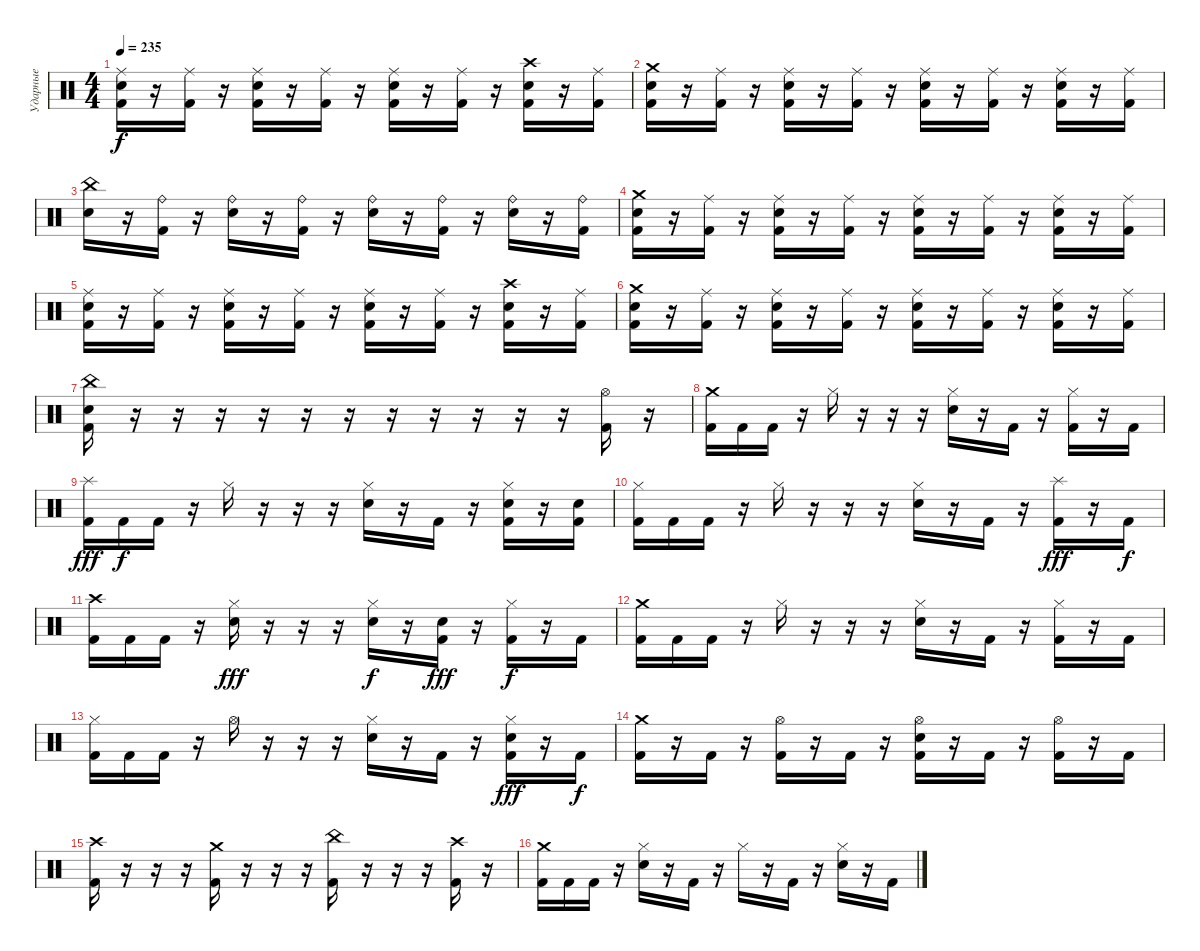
\track ("Ударные" "Ударные") {instrument percussion}
\staff {score}
\articulation defaults
\ts (4 4)
\tempo 235
\clef neutral
\ks c
("Ride (middle)" "Snare (hit) 2" "Kick (hit) 2").16{dy f} r.16 ("Ride (middle)" "Kick (hit) 2").16 r.16 ("Ride (middle)" "Snare (hit) 2" "Kick (hit) 2").16 r.16 ("Ride (middle)" "Kick (hit) 2").16 r.16 ("Ride (middle)" "Snare (hit) 2" "Kick (hit) 2").16 r.16 ("Ride (middle)" "Kick (hit) 2").16 r.16 ("Crash high (hit)" "Snare (hit) 2" "Kick (hit) 2").16 r.16 ("Ride (middle)" "Kick (hit) 2").16 |
("Crash medium (hit)" "Snare (hit) 2" "Kick (hit) 2").16 r.16 ("Ride (middle)" "Kick (hit) 2").16 r.16 ("Ride (middle)" "Snare (hit) 2" "Kick (hit) 2").16 r.16 ("Ride (middle)" "Kick (hit) 2").16 r.16 ("Ride (middle)" "Snare (hit) 2" "Kick (hit) 2").16 r.16 ("Ride (middle)" "Kick (hit) 2").16 r.16 ("Ride (middle)" "Snare (hit) 2" "Kick (hit) 2").16 r.16 ("Ride (middle)" "Kick (hit) 2").16 |
("China (hit)" "Snare (hit) 2").16 r.16 ("Ride (bell)" "Kick (hit) 2").16 r.16 ("Ride (bell)" "Snare (hit) 2").16 r.16 ("Ride (bell)" "Kick (hit) 2").16 r.16 ("Ride (bell)" "Snare (hit) 2").16 r.16 ("Ride (bell)" "Kick (hit) 2").16 r.16 ("Ride (bell)" "Snare (hit) 2").16 r.16 ("Ride (bell)" "Kick (hit) 2").16 |
("Crash medium (hit)" "Snare (hit) 2" "Kick (hit) 2").16 r.16 ("Ride (middle)" "Kick (hit) 2").16 r.16 ("Ride (middle)" "Snare (hit) 2" "Kick (hit) 2").16 r.16 ("Ride (middle)" "Kick (hit) 2").16 r.16 ("Ride (middle)" "Snare (hit) 2" "Kick (hit) 2").16 r.16 ("Ride (middle)" "Kick (hit) 2").16 r.16 ("Ride (middle)" "Snare (hit) 2" "Kick (hit) 2").16 r.16 ("Ride (middle)" "Kick (hit) 2").16 |
("Ride (middle)" "Snare (hit) 2" "Kick (hit) 2").16 r.16 ("Ride (middle)" "Kick (hit) 2").16 r.16 ("Ride (middle)" "Snare (hit) 2" "Kick (hit) 2").16 r.16 ("Ride (middle)" "Kick (hit) 2").16 r.16 ("Ride (middle)" "Snare (hit) 2" "Kick (hit) 2").16 r.16 ("Ride (middle)" "Kick (hit) 2").16 r.16 ("Crash high (hit)" "Snare (hit) 2" "Kick (hit) 2").16 r.16 ("Ride (middle)" "Kick (hit) 2").16 |
("Crash medium (hit)" "Snare (hit) 2" "Kick (hit) 2").16 r.16 ("Ride (middle)" "Kick (hit) 2").16 r.16 ("Ride (middle)" "Snare (hit) 2" "Kick (hit) 2").16 r.16 ("Ride (middle)" "Kick (hit) 2").16 r.16 ("Ride (middle)" "Snare (hit) 2" "Kick (hit) 2").16 r.16 ("Ride (middle)" "Kick (hit) 2").16 r.16 ("Ride (middle)" "Snare (hit) 2" "Kick (hit) 2").16 r.16 ("Ride (middle)" "Kick (hit) 2").16 |
("China (hit)" "Snare (hit) 2" "Kick (hit) 2").16 r.16 r.16 r.16 r.16 r.16 r.16 r.16 r.16 r.16 r.16 r.16 ("Hi-Hat (open)" "Kick (hit) 2").16 r.16 |
("Crash medium (hit)" "Kick (hit) 2").16 "Kick (hit) 2".16 "Kick (hit) 2".16 r.16 "Hi-Hat (closed)".16 r.16 r.16 r.16 ("Hi-Hat (closed)" "Snare (hit) 2").16 r.16 "Kick (hit) 2".16 r.16 ("Hi-Hat (closed)" "Kick (hit) 2").16 r.16 "Kick (hit) 2".16 |
("Splash (hit)" "Kick (hit) 2").16{dy fff} "Kick (hit) 2".16{dy f} "Kick (hit) 2".16 r.16 "Hi-Hat (closed)".16 r.16 r.16 r.16 ("Hi-Hat (closed)" "Snare (hit) 2").16 r.16 "Kick (hit) 2".16 r.16 ("Hi-Hat (closed)" "Snare (hit) 2" "Kick (hit) 2").16 r.16 ("Snare (hit) 2" "Kick (hit) 2").16 |
("Hi-Hat (closed)" "Kick (hit) 2").16 "Kick (hit) 2".16 "Kick (hit) 2".16 r.16 "Hi-Hat (closed)".16 r.16 r.16 r.16 ("Hi-Hat (closed)" "Snare (hit) 2").16 r.16 "Kick (hit) 2".16 r.16 ("Splash (hit)" "Kick (hit) 2").16{dy fff} r.16 "Kick (hit) 2".16{dy f} |
("Crash high (hit)" "Kick (hit) 2").16 "Kick (hit) 2".16 "Kick (hit) 2".16 r.16 ("Hi-Hat (closed)" "Snare (hit) 2").16{dy fff} r.16 r.16 r.16 ("Hi-Hat (closed)" "Snare (hit) 2").16{dy f} r.16 ("Snare (hit) 2" "Kick (hit) 2").16{dy fff} r.16 ("Hi-Hat (closed)" "Kick (hit) 2").16{dy f} r.16 "Kick (hit) 2".16 |
("Crash medium (hit)" "Kick (hit) 2").16 "Kick (hit) 2".16 "Kick (hit) 2".16 r.16 "Hi-Hat (closed)".16 r.16 r.16 r.16 ("Hi-Hat (closed)" "Snare (hit) 2").16 r.16 "Kick (hit) 2".16 r.16 ("Hi-Hat (closed)" "Kick (hit) 2").16 r.16 "Kick (hit) 2".16 |
("Hi-Hat (closed)" "Kick (hit) 2").16 "Kick (hit) 2".16 "Kick (hit) 2".16 r.16 "Hi-Hat (open)".16 r.16 r.16 r.16 ("Hi-Hat (closed)" "Snare (hit) 2").16 r.16 "Kick (hit) 2".16 r.16 ("Hi-Hat (closed)" "Snare (hit) 2" "Kick (hit) 2").16{dy fff} r.16 "Kick (hit) 2".16{dy f} |
("Crash medium (hit)" "Kick (hit) 2").16 r.16 "Kick (hit) 2".16 r.16 ("Hi-Hat (open)" "Kick (hit) 2").16 r.16 "Kick (hit) 2".16 r.16 ("Hi-Hat (open)" "Snare (hit) 2" "Kick (hit) 2").16 r.16 "Kick (hit) 2".16 r.16 ("Hi-Hat (open)" "Kick (hit) 2").16 r.16 "Kick (hit) 2".16 |
("Crash high (hit)" "Kick (hit) 2").16 r.16 r.16 r.16 ("Crash medium (hit)" "Kick (hit) 2").16 r.16 r.16 r.16 ("China (hit)" "Kick (hit) 2").16 r.16 r.16 r.16 ("Crash high (hit)" "Kick (hit) 2").16 r.16 |
("Crash medium (hit)" "Kick (hit) 2").16 "Kick (hit) 2".16 "Kick (hit) 2".16 r.16 ("Hi-Hat (closed)" "Snare (hit) 2").16 r.16 "Kick (hit) 2".16 r.16 "Hi-Hat (closed)".16 r.16 "Kick (hit) 2".16 r.16 ("Hi-Hat (closed)" "Snare (hit) 2").16 r.16 "Kick (hit) 2".16
